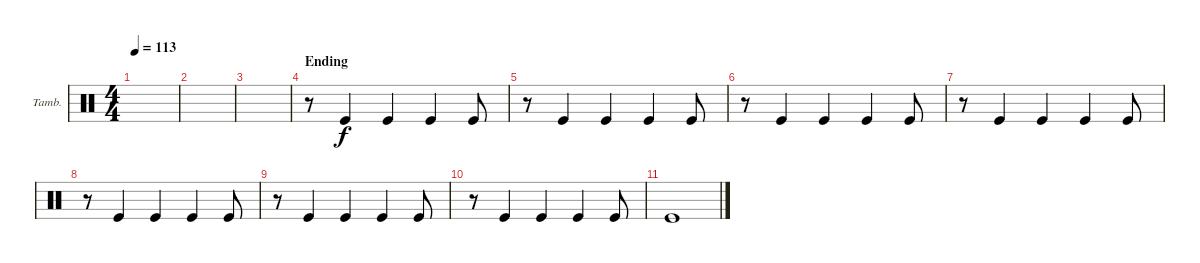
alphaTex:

\defaultSystemsLayout 4
\bracketExtendMode groupsimilarinstruments
\firstSystemTrackNameOrientation horizontal
\otherSystemsTrackNameOrientation horizontal
\track ("Tambourine" "Tamb.") {instrument percussion}
\staff {score}
\articulation defaults
\ts (4 4)
\tempo 113
\clef neutral
\ks c
|
|
|
\section ("" "Ending")
r.8 "Kick (hit)".4 "Kick (hit)".4 "Kick (hit)".4 "Kick (hit)".8 |
r.8 "Kick (hit)".4 "Kick (hit)".4 "Kick (hit)".4 "Kick (hit)".8 |
r.8 "Kick (hit)".4 "Kick (hit)".4 "Kick (hit)".4 "Kick (hit)".8 |
r.8 "Kick (hit)".4 "Kick (hit)".4 "Kick (hit)".4 "Kick (hit)".8 |
r.8 "Kick (hit)".4 "Kick (hit)".4 "Kick (hit)".4 "Kick (hit)".8 |
r.8 "Kick (hit)".4 "Kick (hit)".4 "Kick (hit)".4 "Kick (hit)".8 |
r.8 "Kick (hit)".4 "Kick (hit)".4 "Kick (hit)".4 "Kick (hit)".8 |
"Kick (hit)".1
